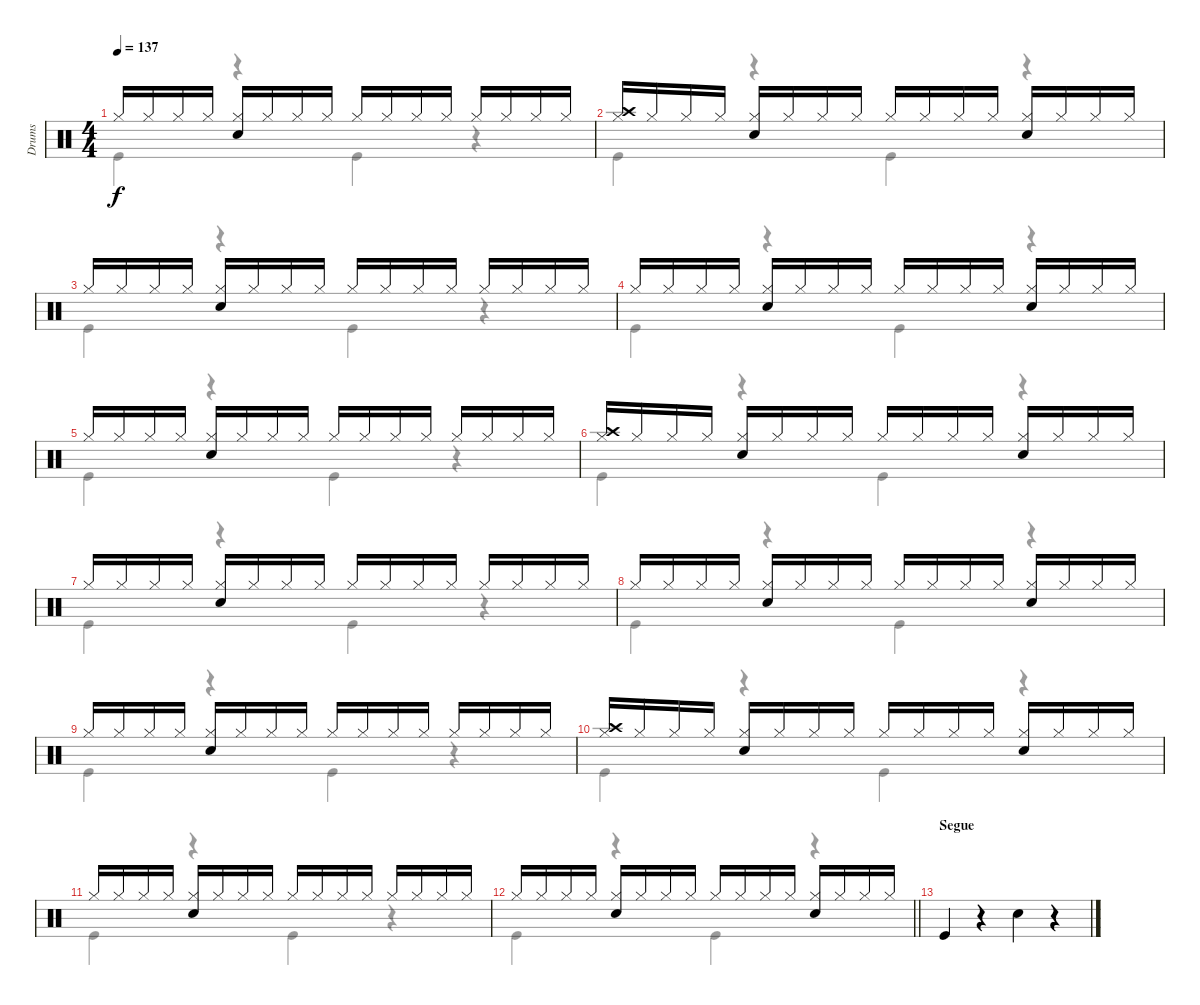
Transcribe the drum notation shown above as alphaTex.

\track ("Drums" "Drums") {instrument percussion}
\staff {score}
\articulation defaults
\voice
\ts (4 4)
\tempo 137
\clef neutral
\ks c "Hi-Hat (closed)".16{dy f} "Hi-Hat (closed)".16 "Hi-Hat (closed)".16 "Hi-Hat (closed)".16
("Hi-Hat (closed)" "Snare (hit) 2").16 "Hi-Hat (closed)".16 "Hi-Hat (closed)".16 "Hi-Hat (closed)".16 "Hi-Hat (closed)".16 "Hi-Hat (closed)".16 "Hi-Hat (closed)".16 "Hi-Hat (closed)".16 "Hi-Hat (closed)".16 "Hi-Hat (closed)".16 "Hi-Hat (closed)".16 "Hi-Hat (closed)".16 |
("Hi-Hat (closed)" "Crash high (hit)").16 "Hi-Hat (closed)".16 "Hi-Hat (closed)".16 "Hi-Hat (closed)".16 ("Hi-Hat (closed)" "Snare (hit) 2").16 "Hi-Hat (closed)".16 "Hi-Hat (closed)".16 "Hi-Hat (closed)".16 "Hi-Hat (closed)".16 "Hi-Hat (closed)".16 "Hi-Hat (closed)".16 "Hi-Hat (closed)".16 ("Hi-Hat (closed)" "Hand Clap (hit)").16 "Hi-Hat (closed)".16 "Hi-Hat (closed)".16 "Hi-Hat (closed)".16 |
"Hi-Hat (closed)".16 "Hi-Hat (closed)".16 "Hi-Hat (closed)".16 "Hi-Hat (closed)".16 ("Hi-Hat (closed)" "Snare (hit) 2").16 "Hi-Hat (closed)".16 "Hi-Hat (closed)".16 "Hi-Hat (closed)".16 "Hi-Hat (closed)".16 "Hi-Hat (closed)".16 "Hi-Hat (closed)".16 "Hi-Hat (closed)".16 "Hi-Hat (closed)".16 "Hi-Hat (closed)".16 "Hi-Hat (closed)".16 "Hi-Hat (closed)".16 |
"Hi-Hat (closed)".16 "Hi-Hat (closed)".16 "Hi-Hat (closed)".16 "Hi-Hat (closed)".16 ("Hi-Hat (closed)" "Snare (hit) 2").16 "Hi-Hat (closed)".16 "Hi-Hat (closed)".16 "Hi-Hat (closed)".16 "Hi-Hat (closed)".16 "Hi-Hat (closed)".16 "Hi-Hat (closed)".16 "Hi-Hat (closed)".16 ("Hi-Hat (closed)" "Hand Clap (hit)").16 "Hi-Hat (closed)".16 "Hi-Hat (closed)".16 "Hi-Hat (closed)".16 |
"Hi-Hat (closed)".16 "Hi-Hat (closed)".16 "Hi-Hat (closed)".16 "Hi-Hat (closed)".16 ("Hi-Hat (closed)" "Snare (hit) 2").16 "Hi-Hat (closed)".16 "Hi-Hat (closed)".16 "Hi-Hat (closed)".16 "Hi-Hat (closed)".16 "Hi-Hat (closed)".16 "Hi-Hat (closed)".16 "Hi-Hat (closed)".16 "Hi-Hat (closed)".16 "Hi-Hat (closed)".16 "Hi-Hat (closed)".16 "Hi-Hat (closed)".16 |
("Hi-Hat (closed)" "Crash high (hit)").16 "Hi-Hat (closed)".16 "Hi-Hat (closed)".16 "Hi-Hat (closed)".16 ("Hi-Hat (closed)" "Snare (hit) 2").16 "Hi-Hat (closed)".16 "Hi-Hat (closed)".16 "Hi-Hat (closed)".16 "Hi-Hat (closed)".16 "Hi-Hat (closed)".16 "Hi-Hat (closed)".16 "Hi-Hat (closed)".16 ("Hi-Hat (closed)" "Hand Clap (hit)").16 "Hi-Hat (closed)".16 "Hi-Hat (closed)".16 "Hi-Hat (closed)".16 |
"Hi-Hat (closed)".16 "Hi-Hat (closed)".16 "Hi-Hat (closed)".16 "Hi-Hat (closed)".16 ("Hi-Hat (closed)" "Snare (hit) 2").16 "Hi-Hat (closed)".16 "Hi-Hat (closed)".16 "Hi-Hat (closed)".16 "Hi-Hat (closed)".16 "Hi-Hat (closed)".16 "Hi-Hat (closed)".16 "Hi-Hat (closed)".16 "Hi-Hat (closed)".16 "Hi-Hat (closed)".16 "Hi-Hat (closed)".16 "Hi-Hat (closed)".16 |
"Hi-Hat (closed)".16 "Hi-Hat (closed)".16 "Hi-Hat (closed)".16 "Hi-Hat (closed)".16 ("Hi-Hat (closed)" "Snare (hit) 2").16 "Hi-Hat (closed)".16 "Hi-Hat (closed)".16 "Hi-Hat (closed)".16 "Hi-Hat (closed)".16 "Hi-Hat (closed)".16 "Hi-Hat (closed)".16 "Hi-Hat (closed)".16 ("Hi-Hat (closed)" "Hand Clap (hit)").16 "Hi-Hat (closed)".16 "Hi-Hat (closed)".16 "Hi-Hat (closed)".16 |
"Hi-Hat (closed)".16 "Hi-Hat (closed)".16 "Hi-Hat (closed)".16 "Hi-Hat (closed)".16 ("Hi-Hat (closed)" "Snare (hit) 2").16 "Hi-Hat (closed)".16 "Hi-Hat (closed)".16 "Hi-Hat (closed)".16 "Hi-Hat (closed)".16 "Hi-Hat (closed)".16 "Hi-Hat (closed)".16 "Hi-Hat (closed)".16 "Hi-Hat (closed)".16 "Hi-Hat (closed)".16 "Hi-Hat (closed)".16 "Hi-Hat (closed)".16 |
("Hi-Hat (closed)" "Crash high (hit)").16 "Hi-Hat (closed)".16 "Hi-Hat (closed)".16 "Hi-Hat (closed)".16 ("Hi-Hat (closed)" "Snare (hit) 2").16 "Hi-Hat (closed)".16 "Hi-Hat (closed)".16 "Hi-Hat (closed)".16 "Hi-Hat (closed)".16 "Hi-Hat (closed)".16 "Hi-Hat (closed)".16 "Hi-Hat (closed)".16 ("Hi-Hat (closed)" "Hand Clap (hit)").16 "Hi-Hat (closed)".16 "Hi-Hat (closed)".16 "Hi-Hat (closed)".16 |
"Hi-Hat (closed)".16 "Hi-Hat (closed)".16 "Hi-Hat (closed)".16 "Hi-Hat (closed)".16 ("Hi-Hat (closed)" "Snare (hit) 2").16 "Hi-Hat (closed)".16 "Hi-Hat (closed)".16 "Hi-Hat (closed)".16 "Hi-Hat (closed)".16 "Hi-Hat (closed)".16 "Hi-Hat (closed)".16 "Hi-Hat (closed)".16 "Hi-Hat (closed)".16 "Hi-Hat (closed)".16 "Hi-Hat (closed)".16 "Hi-Hat (closed)".16 |
\barLineRight lightlight "Hi-Hat (closed)".16 "Hi-Hat (closed)".16 "Hi-Hat (closed)".16 "Hi-Hat (closed)".16
("Hi-Hat (closed)" "Snare (hit) 2").16 "Hi-Hat (closed)".16 "Hi-Hat (closed)".16 "Hi-Hat (closed)".16 "Hi-Hat (closed)".16 "Hi-Hat (closed)".16 "Hi-Hat (closed)".16 "Hi-Hat (closed)".16 ("Hi-Hat (closed)" "Hand Clap (hit)").16 "Hi-Hat (closed)".16 "Hi-Hat (closed)".16 "Hi-Hat (closed)".16 |
\section ("" "Segue")
"Kick (hit)".4 r.4 "Snare (hit) 2".4 r.4
\voice
\clef neutral
\ottava regular
\simile none
\ks c "Kick (hit)".4{dy f}
r.4 "Kick (hit)".4 r.4 |
"Kick (hit)".4 r.4 "Kick (hit)".4 r.4 |
"Kick (hit)".4 r.4 "Kick (hit)".4 r.4 |
"Kick (hit)".4 r.4 "Kick (hit)".4 r.4 |
"Kick (hit)".4 r.4 "Kick (hit)".4 r.4 |
"Kick (hit)".4 r.4 "Kick (hit)".4 r.4 |
"Kick (hit)".4 r.4 "Kick (hit)".4 r.4 |
"Kick (hit)".4 r.4 "Kick (hit)".4 r.4 |
"Kick (hit)".4 r.4 "Kick (hit)".4 r.4 |
"Kick (hit)".4 r.4 "Kick (hit)".4 r.4 |
"Kick (hit)".4 r.4 "Kick (hit)".4 r.4 |
\barLineRight lightlight "Kick (hit)".4
r.4 "Kick (hit)".4 r.4 |
